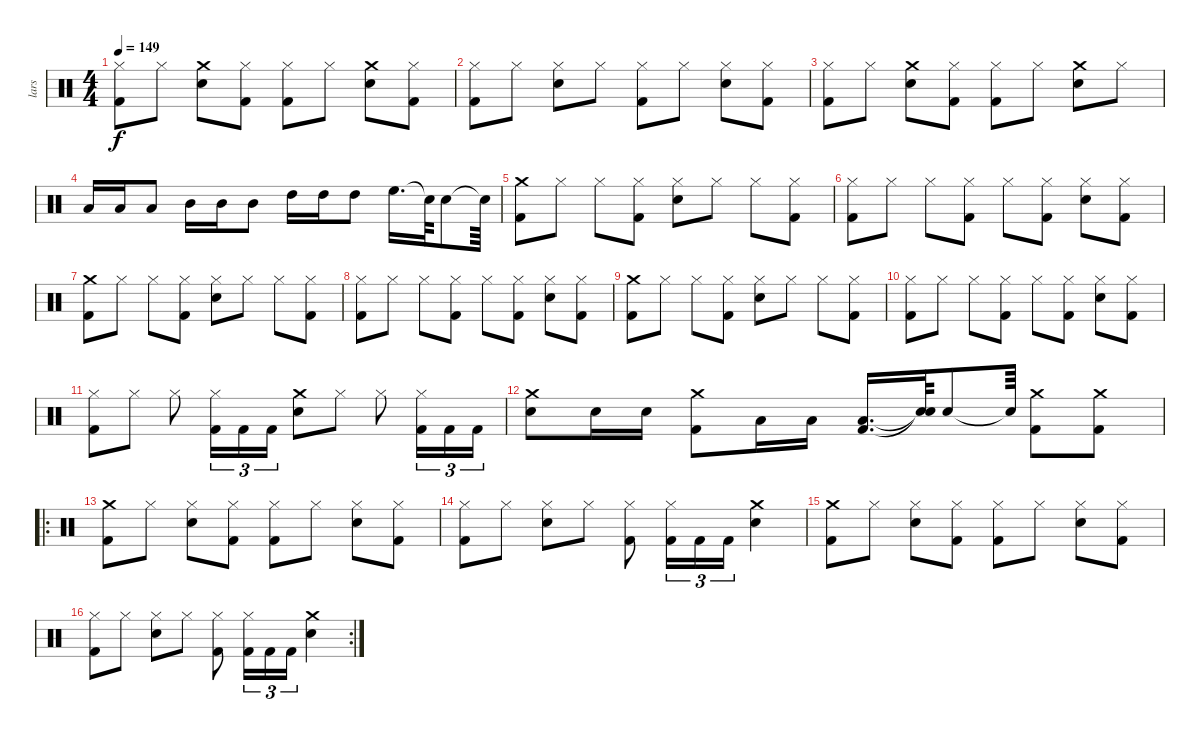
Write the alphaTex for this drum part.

\track ("lars" "lars") {instrument percussion}
\staff {score}
\articulation defaults
\ts (4 4)
\tempo 149
\clef neutral
\ks c
("Kick (hit) 2" "Hi-Hat (closed)").8{dy f} "Hi-Hat (closed)".8 ("Snare (hit) 2" "Crash medium (hit)").8 ("Kick (hit) 2" "Hi-Hat (closed)").8 ("Kick (hit) 2" "Hi-Hat (closed)").8 "Hi-Hat (closed)".8 ("Crash medium (hit)" "Snare (hit) 2").8 ("Kick (hit) 2" "Hi-Hat (closed)").8 |
("Hi-Hat (closed)" "Kick (hit) 2").8 "Hi-Hat (closed)".8 ("Snare (hit) 2" "Hi-Hat (closed)").8 "Hi-Hat (closed)".8 ("Hi-Hat (closed)" "Kick (hit) 2").8 "Hi-Hat (closed)".8 ("Snare (hit) 2" "Hi-Hat (closed)").8 ("Hi-Hat (closed)" "Kick (hit) 2").8 |
("Kick (hit) 2" "Hi-Hat (closed)").8 "Hi-Hat (closed)".8 ("Snare (hit) 2" "Crash medium (hit)").8 ("Kick (hit) 2" "Hi-Hat (closed)").8 ("Kick (hit) 2" "Hi-Hat (closed)").8 "Hi-Hat (closed)".8 ("Crash medium (hit)" "Snare (hit) 2").8 "Hi-Hat (closed)".8 |
"Low Tom (hit)".16 "Low Tom (hit)".16 "Low Tom (hit)".8 "Mid Tom (hit)".16 "Mid Tom (hit)".16 "Mid Tom (hit)".8 "High Tom (hit)".16 "High Tom (hit)".16 "High Tom (hit)".8 "High Floor Tom (hit)".16{d} "Snare (hit)"{t}.64 "Snare (hit) 2".8 "Snare (hit)"{t}.64 |
("Kick (hit) 2" "Crash medium (hit)").8 "Hi-Hat (closed)".8 "Hi-Hat (closed)".8 ("Kick (hit) 2" "Hi-Hat (closed)").8 ("Hi-Hat (closed)" "Snare (hit) 2").8 "Hi-Hat (closed)".8 "Hi-Hat (closed)".8 ("Kick (hit) 2" "Hi-Hat (closed)").8 |
("Kick (hit) 2" "Hi-Hat (closed)").8 "Hi-Hat (closed)".8 "Hi-Hat (closed)".8 ("Kick (hit) 2" "Hi-Hat (closed)").8 "Hi-Hat (closed)".8 ("Kick (hit) 2" "Hi-Hat (closed)").8 ("Snare (hit) 2" "Hi-Hat (closed)").8 ("Kick (hit) 2" "Hi-Hat (closed)").8 |
("Kick (hit) 2" "Crash medium (hit)").8 "Hi-Hat (closed)".8 "Hi-Hat (closed)".8 ("Kick (hit) 2" "Hi-Hat (closed)").8 ("Hi-Hat (closed)" "Snare (hit) 2").8 "Hi-Hat (closed)".8 "Hi-Hat (closed)".8 ("Kick (hit) 2" "Hi-Hat (closed)").8 |
("Kick (hit) 2" "Hi-Hat (closed)").8 "Hi-Hat (closed)".8 "Hi-Hat (closed)".8 ("Kick (hit) 2" "Hi-Hat (closed)").8 "Hi-Hat (closed)".8 ("Kick (hit) 2" "Hi-Hat (closed)").8 ("Snare (hit) 2" "Hi-Hat (closed)").8 ("Kick (hit) 2" "Hi-Hat (closed)").8 |
("Kick (hit) 2" "Crash medium (hit)").8 "Hi-Hat (closed)".8 "Hi-Hat (closed)".8 ("Kick (hit) 2" "Hi-Hat (closed)").8 ("Hi-Hat (closed)" "Snare (hit) 2").8 "Hi-Hat (closed)".8 "Hi-Hat (closed)".8 ("Kick (hit) 2" "Hi-Hat (closed)").8 |
("Kick (hit) 2" "Hi-Hat (closed)").8 "Hi-Hat (closed)".8 "Hi-Hat (closed)".8 ("Kick (hit) 2" "Hi-Hat (closed)").8 "Hi-Hat (closed)".8 ("Kick (hit) 2" "Hi-Hat (closed)").8 ("Snare (hit) 2" "Hi-Hat (closed)").8 ("Kick (hit) 2" "Hi-Hat (closed)").8 |
("Hi-Hat (closed)" "Kick (hit) 2").8 "Hi-Hat (closed)".8 "Hi-Hat (closed)".8 ("Hi-Hat (closed)" "Kick (hit) 2").16{tu (3 2)} "Kick (hit) 2".16{tu (3 2)} "Kick (hit) 2".16{tu (3 2)} ("Crash medium (hit)" "Snare (hit) 2").8 "Hi-Hat (closed)".8 "Hi-Hat (closed)".8 ("Hi-Hat (closed)" "Kick (hit) 2").16{tu (3 2)} "Kick (hit) 2".16{tu (3 2)} "Kick (hit) 2".16{tu (3 2)} |
("Snare (hit) 2" "Crash medium (hit)").8 "Snare (hit) 2".16 "Snare (hit) 2".16 ("Kick (hit) 2" "Crash medium (hit)").8 "Low Tom (hit)".16 "Low Tom (hit)".16 ("Kick (hit) 2" "Low Tom (hit)").16{d} ("Snare (hit)"{t} "Snare (hit)"{t}).64 "Snare (hit) 2".8 "Snare (hit)"{t}.64 ("Kick (hit) 2" "Crash medium (hit)").8 ("Kick (hit) 2" "Crash medium (hit)").8 |
\ro
("Crash medium (hit)" "Kick (hit) 2").8 "Hi-Hat (closed)".8 ("Snare (hit) 2" "Hi-Hat (closed)").8 ("Hi-Hat (closed)" "Kick (hit) 2").8 ("Hi-Hat (closed)" "Kick (hit) 2").8 "Hi-Hat (closed)".8 ("Snare (hit) 2" "Hi-Hat (closed)").8 ("Hi-Hat (closed)" "Kick (hit) 2").8 |
("Hi-Hat (closed)" "Kick (hit) 2").8 "Hi-Hat (closed)".8 ("Snare (hit) 2" "Hi-Hat (closed)").8 "Hi-Hat (closed)".8 ("Hi-Hat (closed)" "Kick (hit) 2").8 ("Hi-Hat (closed)" "Kick (hit) 2").16{tu (3 2)} "Kick (hit) 2".16{tu (3 2)} "Kick (hit) 2".16{tu (3 2)} ("Crash medium (hit)" "Snare (hit) 2").4 |
("Crash medium (hit)" "Kick (hit) 2").8 "Hi-Hat (closed)".8 ("Snare (hit) 2" "Hi-Hat (closed)").8 ("Hi-Hat (closed)" "Kick (hit) 2").8 ("Hi-Hat (closed)" "Kick (hit) 2").8 "Hi-Hat (closed)".8 ("Snare (hit) 2" "Hi-Hat (closed)").8 ("Hi-Hat (closed)" "Kick (hit) 2").8 |
\rc 2
("Hi-Hat (closed)" "Kick (hit) 2").8 "Hi-Hat (closed)".8 ("Snare (hit) 2" "Hi-Hat (closed)").8 "Hi-Hat (closed)".8 ("Hi-Hat (closed)" "Kick (hit) 2").8 ("Hi-Hat (closed)" "Kick (hit) 2").16{tu (3 2)} "Kick (hit) 2".16{tu (3 2)} "Kick (hit) 2".16{tu (3 2)} ("Crash medium (hit)" "Snare (hit) 2").4
